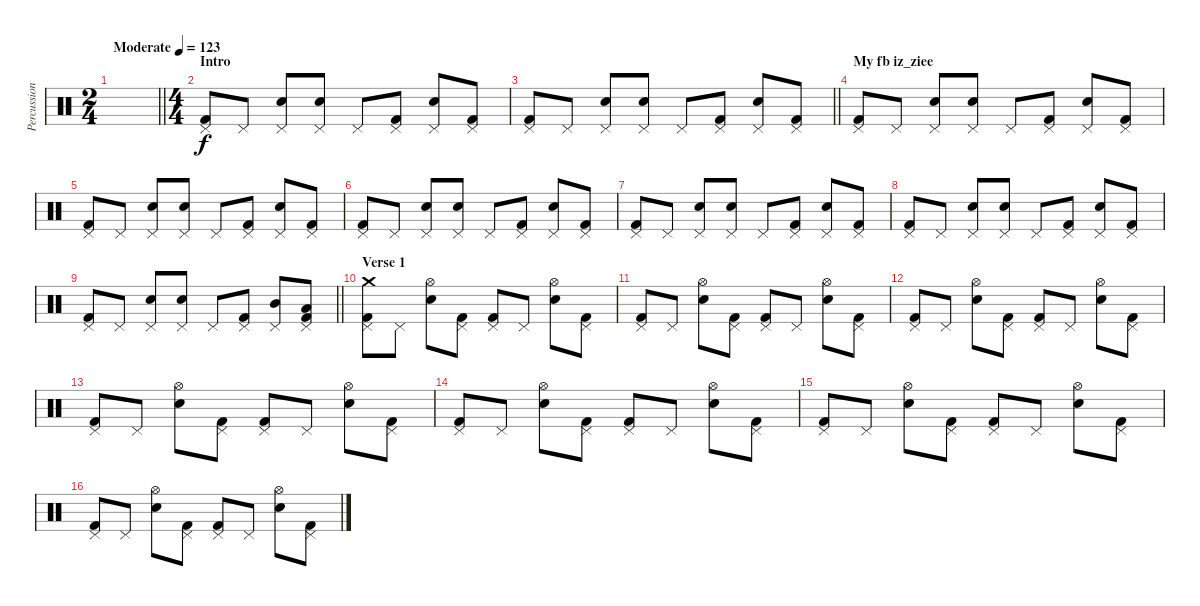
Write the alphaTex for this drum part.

\track ("Percussion 1" "Percussion") {instrument percussion}
\staff {score}
\articulation defaults
\ts (2 4)
\tempo (123 "Moderate")
\clef neutral
\barLineRight lightlight
\ks c
|
\ts (4 4)
\section ("" "Intro")
("Pedal Hi-Hat (hit)" "Kick (hit) 2").8 "Pedal Hi-Hat (hit)".8 ("Pedal Hi-Hat (hit)" "Electric Snare (hit)").8 ("Pedal Hi-Hat (hit)" "Electric Snare (hit)").8 "Pedal Hi-Hat (hit)".8 ("Pedal Hi-Hat (hit)" "Kick (hit) 2").8 ("Pedal Hi-Hat (hit)" "Electric Snare (hit)").8 ("Pedal Hi-Hat (hit)" "Kick (hit) 2").8 |
\barLineRight lightlight
("Pedal Hi-Hat (hit)" "Kick (hit) 2").8 "Pedal Hi-Hat (hit)".8 ("Pedal Hi-Hat (hit)" "Electric Snare (hit)").8 ("Pedal Hi-Hat (hit)" "Electric Snare (hit)").8 "Pedal Hi-Hat (hit)".8 ("Pedal Hi-Hat (hit)" "Kick (hit) 2").8 ("Pedal Hi-Hat (hit)" "Electric Snare (hit)").8 ("Pedal Hi-Hat (hit)" "Kick (hit) 2").8 |
\section ("" "My fb iz_ziee")
("Pedal Hi-Hat (hit)" "Kick (hit) 2").8 "Pedal Hi-Hat (hit)".8 ("Pedal Hi-Hat (hit)" "Electric Snare (hit)").8 ("Pedal Hi-Hat (hit)" "Electric Snare (hit)").8 "Pedal Hi-Hat (hit)".8 ("Pedal Hi-Hat (hit)" "Kick (hit) 2").8 ("Pedal Hi-Hat (hit)" "Electric Snare (hit)").8 ("Pedal Hi-Hat (hit)" "Kick (hit) 2").8 |
("Pedal Hi-Hat (hit)" "Kick (hit) 2").8 "Pedal Hi-Hat (hit)".8 ("Pedal Hi-Hat (hit)" "Electric Snare (hit)").8 ("Pedal Hi-Hat (hit)" "Electric Snare (hit)").8 "Pedal Hi-Hat (hit)".8 ("Pedal Hi-Hat (hit)" "Kick (hit) 2").8 ("Pedal Hi-Hat (hit)" "Electric Snare (hit)").8 ("Pedal Hi-Hat (hit)" "Kick (hit) 2").8 |
("Pedal Hi-Hat (hit)" "Kick (hit) 2").8 "Pedal Hi-Hat (hit)".8 ("Pedal Hi-Hat (hit)" "Electric Snare (hit)").8 ("Pedal Hi-Hat (hit)" "Electric Snare (hit)").8 "Pedal Hi-Hat (hit)".8 ("Pedal Hi-Hat (hit)" "Kick (hit) 2").8 ("Pedal Hi-Hat (hit)" "Electric Snare (hit)").8 ("Pedal Hi-Hat (hit)" "Kick (hit) 2").8 |
("Pedal Hi-Hat (hit)" "Kick (hit) 2").8 "Pedal Hi-Hat (hit)".8 ("Pedal Hi-Hat (hit)" "Electric Snare (hit)").8 ("Pedal Hi-Hat (hit)" "Electric Snare (hit)").8 "Pedal Hi-Hat (hit)".8 ("Pedal Hi-Hat (hit)" "Kick (hit) 2").8 ("Pedal Hi-Hat (hit)" "Electric Snare (hit)").8 ("Pedal Hi-Hat (hit)" "Kick (hit) 2").8 |
("Pedal Hi-Hat (hit)" "Kick (hit) 2").8 "Pedal Hi-Hat (hit)".8 ("Pedal Hi-Hat (hit)" "Electric Snare (hit)").8 ("Pedal Hi-Hat (hit)" "Electric Snare (hit)").8 "Pedal Hi-Hat (hit)".8 ("Pedal Hi-Hat (hit)" "Kick (hit) 2").8 ("Pedal Hi-Hat (hit)" "Electric Snare (hit)").8 ("Pedal Hi-Hat (hit)" "Kick (hit) 2").8 |
\barLineRight lightlight
("Pedal Hi-Hat (hit)" "Kick (hit) 2").8 "Pedal Hi-Hat (hit)".8 ("Pedal Hi-Hat (hit)" "Electric Snare (hit)").8 ("Pedal Hi-Hat (hit)" "Electric Snare (hit)").8 "Pedal Hi-Hat (hit)".8 ("Pedal Hi-Hat (hit)" "Kick (hit) 2").8 ("Pedal Hi-Hat (hit)" "Mid Tom (hit)").8 ("Pedal Hi-Hat (hit)" "Low Tom (hit)" "Kick (hit) 2").8 |
\section ("" "Verse 1")
("Pedal Hi-Hat (hit)" "Crash medium (hit)" "Kick (hit) 2").8 "Pedal Hi-Hat (hit)".8 ("Hi-Hat (open)" "Electric Snare (hit)").8 ("Pedal Hi-Hat (hit)" "Kick (hit) 2").8 ("Pedal Hi-Hat (hit)" "Kick (hit) 2").8 "Pedal Hi-Hat (hit)".8 ("Hi-Hat (open)" "Electric Snare (hit)").8 ("Pedal Hi-Hat (hit)" "Kick (hit) 2").8 |
("Pedal Hi-Hat (hit)" "Kick (hit) 2").8 "Pedal Hi-Hat (hit)".8 ("Hi-Hat (open)" "Electric Snare (hit)").8 ("Pedal Hi-Hat (hit)" "Kick (hit) 2").8 ("Pedal Hi-Hat (hit)" "Kick (hit) 2").8 "Pedal Hi-Hat (hit)".8 ("Hi-Hat (open)" "Electric Snare (hit)").8 ("Pedal Hi-Hat (hit)" "Kick (hit) 2").8 |
("Pedal Hi-Hat (hit)" "Kick (hit) 2").8 "Pedal Hi-Hat (hit)".8 ("Hi-Hat (open)" "Electric Snare (hit)").8 ("Pedal Hi-Hat (hit)" "Kick (hit) 2").8 ("Pedal Hi-Hat (hit)" "Kick (hit) 2").8 "Pedal Hi-Hat (hit)".8 ("Hi-Hat (open)" "Electric Snare (hit)").8 ("Pedal Hi-Hat (hit)" "Kick (hit) 2").8 |
("Pedal Hi-Hat (hit)" "Kick (hit) 2").8 "Pedal Hi-Hat (hit)".8 ("Hi-Hat (open)" "Electric Snare (hit)").8 ("Pedal Hi-Hat (hit)" "Kick (hit) 2").8 ("Pedal Hi-Hat (hit)" "Kick (hit) 2").8 "Pedal Hi-Hat (hit)".8 ("Hi-Hat (open)" "Electric Snare (hit)").8 ("Pedal Hi-Hat (hit)" "Kick (hit) 2").8 |
("Pedal Hi-Hat (hit)" "Kick (hit) 2").8 "Pedal Hi-Hat (hit)".8 ("Hi-Hat (open)" "Electric Snare (hit)").8 ("Pedal Hi-Hat (hit)" "Kick (hit) 2").8 ("Pedal Hi-Hat (hit)" "Kick (hit) 2").8 "Pedal Hi-Hat (hit)".8 ("Hi-Hat (open)" "Electric Snare (hit)").8 ("Pedal Hi-Hat (hit)" "Kick (hit) 2").8 |
("Pedal Hi-Hat (hit)" "Kick (hit) 2").8 "Pedal Hi-Hat (hit)".8 ("Hi-Hat (open)" "Electric Snare (hit)").8 ("Pedal Hi-Hat (hit)" "Kick (hit) 2").8 ("Pedal Hi-Hat (hit)" "Kick (hit) 2").8 "Pedal Hi-Hat (hit)".8 ("Hi-Hat (open)" "Electric Snare (hit)").8 ("Pedal Hi-Hat (hit)" "Kick (hit) 2").8 |
("Pedal Hi-Hat (hit)" "Kick (hit) 2").8 "Pedal Hi-Hat (hit)".8 ("Hi-Hat (open)" "Electric Snare (hit)").8 ("Pedal Hi-Hat (hit)" "Kick (hit) 2").8 ("Pedal Hi-Hat (hit)" "Kick (hit) 2").8 "Pedal Hi-Hat (hit)".8 ("Hi-Hat (open)" "Electric Snare (hit)").8 ("Pedal Hi-Hat (hit)" "Kick (hit) 2").8
